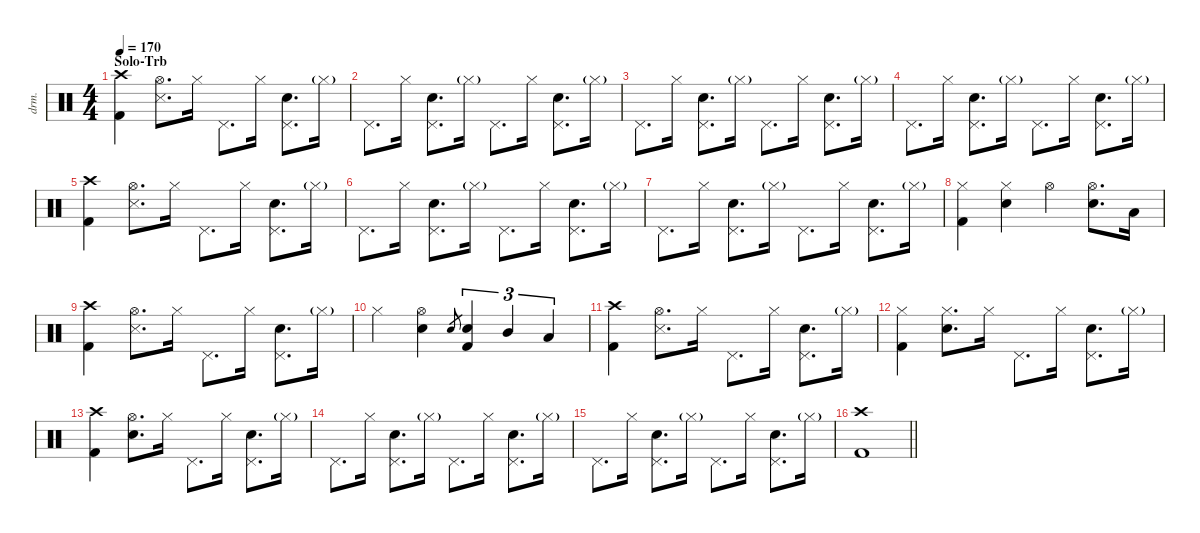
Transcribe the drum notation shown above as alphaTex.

\defaultSystemsLayout 4
\hideDynamics
\bracketExtendMode nobrackets
\otherSystemsTrackNameOrientation horizontal
\track ("Drums" "drm.") {instrument percussion}
\staff {score}
\articulation defaults
\ts (4 4)
\section ("" "Solo-Trb")
\tempo 170
\clef neutral
\ks c
("Crash high (hit)" "Kick (hit) 2").4{dy f beam Down} ("Hi-Hat (open)" "Snare (side stick) 3").8{d beam Down} "Hi-Hat (closed)".16{beam Down} "Pedal Hi-Hat (hit)".8{d beam Down} "Hi-Hat (closed)".16{beam Down} ("Pedal Hi-Hat (hit)" "Snare (hit) 2").8{d beam Down} "Hi-Hat (closed)"{g}.16{dy mf beam Down} |
"Pedal Hi-Hat (hit)".8{d dy f beam Down} "Hi-Hat (closed)".16{beam Down} ("Pedal Hi-Hat (hit)" "Snare (hit) 2").8{d beam Down} "Hi-Hat (closed)"{g}.16{dy mf beam Down} "Pedal Hi-Hat (hit)".8{d dy f beam Down} "Hi-Hat (closed)".16{beam Down} ("Pedal Hi-Hat (hit)" "Snare (hit) 2").8{d beam Down} "Hi-Hat (closed)"{g}.16{dy mf beam Down} |
"Pedal Hi-Hat (hit)".8{d dy f beam Down} "Hi-Hat (closed)".16{beam Down} ("Pedal Hi-Hat (hit)" "Snare (hit) 2").8{d beam Down} "Hi-Hat (closed)"{g}.16{dy mf beam Down} "Pedal Hi-Hat (hit)".8{d dy f beam Down} "Hi-Hat (closed)".16{beam Down} ("Pedal Hi-Hat (hit)" "Snare (hit) 2").8{d beam Down} "Hi-Hat (closed)"{g}.16{dy mf beam Down} |
"Pedal Hi-Hat (hit)".8{d dy f beam Down} "Hi-Hat (closed)".16{beam Down} ("Pedal Hi-Hat (hit)" "Snare (hit) 2").8{d beam Down} "Hi-Hat (closed)"{g}.16{dy mf beam Down} "Pedal Hi-Hat (hit)".8{d dy f beam Down} "Hi-Hat (closed)".16{beam Down} ("Pedal Hi-Hat (hit)" "Snare (hit) 2").8{d beam Down} "Hi-Hat (closed)"{g}.16{dy mf beam Down} |
("Crash high (hit)" "Kick (hit) 2").4{dy f beam Down} ("Hi-Hat (open)" "Snare (side stick) 3").8{d beam Down} "Hi-Hat (closed)".16{beam Down} "Pedal Hi-Hat (hit)".8{d beam Down} "Hi-Hat (closed)".16{beam Down} ("Pedal Hi-Hat (hit)" "Snare (hit) 2").8{d beam Down} "Hi-Hat (closed)"{g}.16{dy mf beam Down} |
"Pedal Hi-Hat (hit)".8{d dy f beam Down} "Hi-Hat (closed)".16{beam Down} ("Pedal Hi-Hat (hit)" "Snare (hit) 2").8{d beam Down} "Hi-Hat (closed)"{g}.16{dy mf beam Down} "Pedal Hi-Hat (hit)".8{d dy f beam Down} "Hi-Hat (closed)".16{beam Down} ("Pedal Hi-Hat (hit)" "Snare (hit) 2").8{d beam Down} "Hi-Hat (closed)"{g}.16{dy mf beam Down} |
"Pedal Hi-Hat (hit)".8{d dy f beam Down} "Hi-Hat (closed)".16{beam Down} ("Pedal Hi-Hat (hit)" "Snare (hit) 2").8{d beam Down} "Hi-Hat (closed)"{g}.16{dy mf beam Down} "Pedal Hi-Hat (hit)".8{d dy f beam Down} "Hi-Hat (closed)".16{beam Down} ("Pedal Hi-Hat (hit)" "Snare (hit) 2").8{d beam Down} "Hi-Hat (closed)"{g}.16{dy mf beam Down} |
("Hi-Hat (closed)" "Kick (hit) 2").4{dy f beam Down} ("Hi-Hat (closed)" "Snare (hit) 2").4{beam Down} "Hi-Hat (open)".4{beam Down} ("Hi-Hat (open)" "Snare (hit) 2").8{d beam Down} "Low Tom (hit)".16{beam Down} |
("Crash high (hit)" "Kick (hit) 2").4{beam Down} ("Hi-Hat (open)" "Snare (side stick) 3").8{d beam Down} "Hi-Hat (closed)".16{beam Down} "Pedal Hi-Hat (hit)".8{d beam Down} "Hi-Hat (closed)".16{beam Down} ("Pedal Hi-Hat (hit)" "Snare (hit) 2").8{d beam Down} "Hi-Hat (closed)"{g}.16{dy mf beam Down} |
"Hi-Hat (closed)".4{dy f beam Down} ("Hi-Hat (open)" "Snare (hit) 2").4{beam Down} "Snare (hit) 2".8{gr dy mf beam Up} ("Snare (hit) 2" "Kick (hit) 2").4{tu (3 2) dy f beam Up} "Mid Tom (hit)".4{tu (3 2) beam Up} "Low Tom (hit)".4{tu (3 2) beam Up} |
("Crash high (hit)" "Kick (hit) 2").4{beam Down} ("Hi-Hat (open)" "Snare (side stick) 3").8{d beam Down} "Hi-Hat (closed)".16{beam Down} "Pedal Hi-Hat (hit)".8{d beam Down} "Hi-Hat (closed)".16{beam Down} ("Pedal Hi-Hat (hit)" "Snare (hit) 2").8{d beam Down} "Hi-Hat (closed)"{g}.16{dy mf beam Down} |
("Hi-Hat (closed)" "Kick (hit) 2").4{dy f beam Down} ("Hi-Hat (closed)" "Snare (hit) 2").8{d beam Down} "Hi-Hat (closed)".16{beam Down} "Pedal Hi-Hat (hit)".8{d beam Down} "Hi-Hat (closed)".16{beam Down} ("Pedal Hi-Hat (hit)" "Snare (hit) 2").8{d beam Down} "Hi-Hat (closed)"{g}.16{dy mf beam Down} |
("Crash high (hit)" "Kick (hit) 2").4{dy f beam Down} ("Hi-Hat (open)" "Snare (hit) 2").8{d beam Down} "Hi-Hat (closed)".16{beam Down} "Pedal Hi-Hat (hit)".8{d beam Down} "Hi-Hat (closed)".16{beam Down} ("Pedal Hi-Hat (hit)" "Snare (hit) 2").8{d beam Down} "Hi-Hat (closed)"{g}.16{dy mf beam Down} |
"Pedal Hi-Hat (hit)".8{d dy f beam Down} "Hi-Hat (closed)".16{beam Down} ("Pedal Hi-Hat (hit)" "Snare (hit) 2").8{d beam Down} "Hi-Hat (closed)"{g}.16{dy mf beam Down} "Pedal Hi-Hat (hit)".8{d dy f beam Down} "Hi-Hat (closed)".16{beam Down} ("Pedal Hi-Hat (hit)" "Snare (hit) 2").8{d beam Down} "Hi-Hat (closed)"{g}.16{dy mf beam Down} |
"Pedal Hi-Hat (hit)".8{d dy f beam Down} "Hi-Hat (closed)".16{beam Down} ("Pedal Hi-Hat (hit)" "Snare (hit) 2").8{d beam Down} "Hi-Hat (closed)"{g}.16{dy mf beam Down} "Pedal Hi-Hat (hit)".8{d dy f beam Down} "Hi-Hat (closed)".16{beam Down} ("Pedal Hi-Hat (hit)" "Snare (hit) 2").8{d beam Down} "Hi-Hat (closed)"{g}.16{dy mf beam Down} |
\barLineRight lightlight
("Crash high (hit)" "Kick (hit) 2").1{beam Down}
